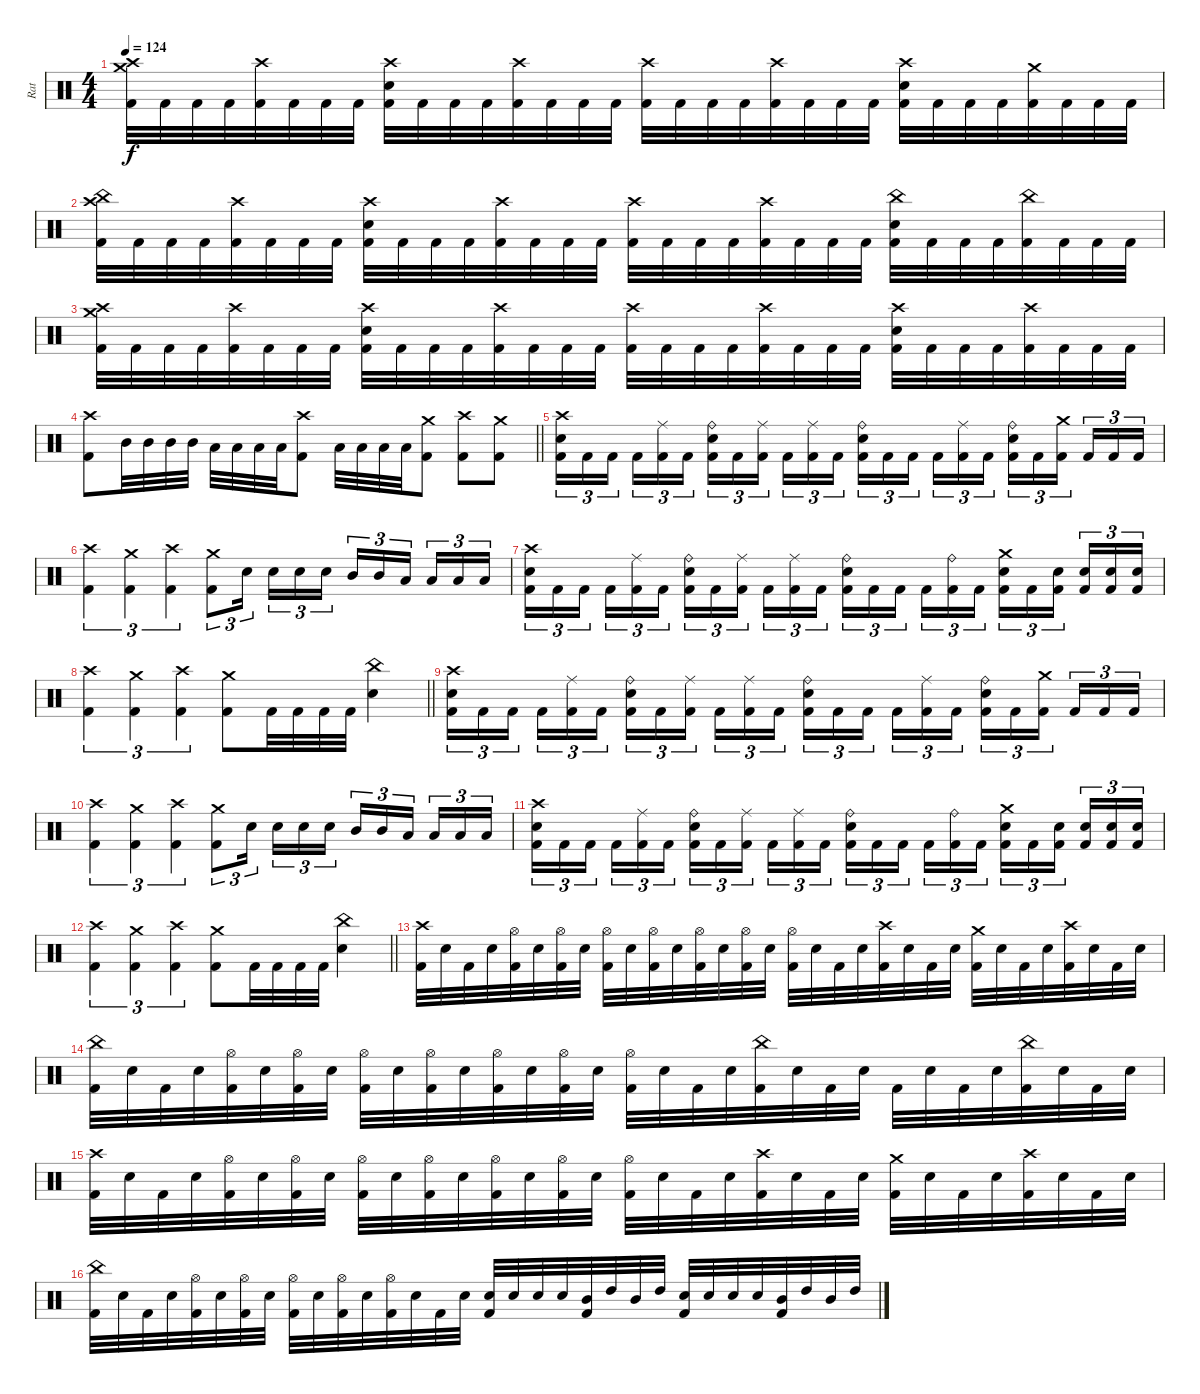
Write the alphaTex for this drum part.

\track ("Rat" "Rat") {instrument percussion}
\staff {score}
\articulation defaults
\ts (4 4)
\tempo 124
\clef neutral
\ks c
("Crash high (hit)" "Crash medium (hit)" "Kick (hit) 2").32{dy f} "Kick (hit) 2".32 "Kick (hit) 2".32 "Kick (hit) 2".32 ("Crash high (hit)" "Kick (hit) 2").32 "Kick (hit) 2".32 "Kick (hit) 2".32 "Kick (hit) 2".32 ("Crash high (hit)" "Electric Snare (hit)" "Kick (hit) 2").32 "Kick (hit) 2".32 "Kick (hit) 2".32 "Kick (hit) 2".32 ("Crash high (hit)" "Kick (hit) 2").32 "Kick (hit) 2".32 "Kick (hit) 2".32 "Kick (hit) 2".32 ("Crash high (hit)" "Kick (hit) 2").32 "Kick (hit) 2".32 "Kick (hit) 2".32 "Kick (hit) 2".32 ("Crash high (hit)" "Kick (hit) 2").32 "Kick (hit) 2".32 "Kick (hit) 2".32 "Kick (hit) 2".32 ("Crash high (hit)" "Electric Snare (hit)" "Kick (hit) 2").32 "Kick (hit) 2".32 "Kick (hit) 2".32 "Kick (hit) 2".32 ("Crash medium (hit)" "Kick (hit) 2").32 "Kick (hit) 2".32 "Kick (hit) 2".32 "Kick (hit) 2".32 |
("Crash high (hit)" "China (hit)" "Kick (hit) 2").32 "Kick (hit) 2".32 "Kick (hit) 2".32 "Kick (hit) 2".32 ("Crash high (hit)" "Kick (hit) 2").32 "Kick (hit) 2".32 "Kick (hit) 2".32 "Kick (hit) 2".32 ("Crash high (hit)" "Electric Snare (hit)" "Kick (hit) 2").32 "Kick (hit) 2".32 "Kick (hit) 2".32 "Kick (hit) 2".32 ("Crash high (hit)" "Kick (hit) 2").32 "Kick (hit) 2".32 "Kick (hit) 2".32 "Kick (hit) 2".32 ("Crash high (hit)" "Kick (hit) 2").32 "Kick (hit) 2".32 "Kick (hit) 2".32 "Kick (hit) 2".32 ("Crash high (hit)" "Kick (hit) 2").32 "Kick (hit) 2".32 "Kick (hit) 2".32 "Kick (hit) 2".32 ("China (hit)" "Electric Snare (hit)" "Kick (hit) 2").32 "Kick (hit) 2".32 "Kick (hit) 2".32 "Kick (hit) 2".32 ("China (hit)" "Kick (hit) 2").32 "Kick (hit) 2".32 "Kick (hit) 2".32 "Kick (hit) 2".32 |
("Crash high (hit)" "Crash medium (hit)" "Kick (hit) 2").32 "Kick (hit) 2".32 "Kick (hit) 2".32 "Kick (hit) 2".32 ("Crash high (hit)" "Kick (hit) 2").32 "Kick (hit) 2".32 "Kick (hit) 2".32 "Kick (hit) 2".32 ("Crash high (hit)" "Electric Snare (hit)" "Kick (hit) 2").32 "Kick (hit) 2".32 "Kick (hit) 2".32 "Kick (hit) 2".32 ("Crash high (hit)" "Kick (hit) 2").32 "Kick (hit) 2".32 "Kick (hit) 2".32 "Kick (hit) 2".32 ("Crash high (hit)" "Kick (hit) 2").32 "Kick (hit) 2".32 "Kick (hit) 2".32 "Kick (hit) 2".32 ("Crash high (hit)" "Kick (hit) 2").32 "Kick (hit) 2".32 "Kick (hit) 2".32 "Kick (hit) 2".32 ("Crash high (hit)" "Electric Snare (hit)" "Kick (hit) 2").32 "Kick (hit) 2".32 "Kick (hit) 2".32 "Kick (hit) 2".32 ("Crash high (hit)" "Kick (hit) 2").32 "Kick (hit) 2".32 "Kick (hit) 2".32 "Kick (hit) 2".32 |
\barLineRight lightlight
("Crash high (hit)" "Kick (hit) 2").8 "Mid Tom (hit)".32 "Mid Tom (hit)".32 "Mid Tom (hit)".32 "Mid Tom (hit)".32 "Low Tom (hit)".32 "Low Tom (hit)".32 "Low Tom (hit)".32 "Low Tom (hit)".32 ("Crash high (hit)" "Kick (hit) 2").8 "Low Tom (hit)".32 "Low Tom (hit)".32 "Low Tom (hit)".32 "Low Tom (hit)".32 ("Crash medium (hit)" "Kick (hit) 2").8 ("Crash high (hit)" "Kick (hit) 2").8 ("Crash medium (hit)" "Kick (hit) 2").8 |
("Crash high (hit)" "Electric Snare (hit)" "Kick (hit) 2").16{tu (3 2)} "Kick (hit) 2".16{tu (3 2)} "Kick (hit) 2".16{tu (3 2) beam splitsecondary} "Kick (hit) 2".16{tu (3 2)} ("Ride (middle)" "Kick (hit) 2").16{tu (3 2)} "Kick (hit) 2".16{tu (3 2)} ("Ride (bell)" "Electric Snare (hit)" "Kick (hit) 2").16{tu (3 2)} "Kick (hit) 2".16{tu (3 2)} ("Ride (middle)" "Kick (hit) 2").16{tu (3 2) beam splitsecondary} "Kick (hit) 2".16{tu (3 2)} ("Ride (middle)" "Kick (hit) 2").16{tu (3 2)} "Kick (hit) 2".16{tu (3 2)} ("Ride (bell)" "Electric Snare (hit)" "Kick (hit) 2").16{tu (3 2)} "Kick (hit) 2".16{tu (3 2)} "Kick (hit) 2".16{tu (3 2) beam splitsecondary} "Kick (hit) 2".16{tu (3 2)} ("Ride (middle)" "Kick (hit) 2").16{tu (3 2)} "Kick (hit) 2".16{tu (3 2)} ("Ride (bell)" "Electric Snare (hit)" "Kick (hit) 2").16{tu (3 2)} "Kick (hit) 2".16{tu (3 2)} ("Crash medium (hit)" "Kick (hit) 2").16{tu (3 2) beam splitsecondary} "Kick (hit) 2".16{tu (3 2)} "Kick (hit) 2".16{tu (3 2)} "Kick (hit) 2".16{tu (3 2)} |
("Crash high (hit)" "Kick (hit) 2").4{tu (3 2)} ("Crash medium (hit)" "Kick (hit) 2").4{tu (3 2)} ("Crash high (hit)" "Kick (hit) 2").4{tu (3 2)} ("Crash medium (hit)" "Kick (hit) 2").8{tu (3 2)} "Electric Snare (hit)".16{tu (3 2) beam splitsecondary} "Electric Snare (hit)".16{tu (3 2)} "Electric Snare (hit)".16{tu (3 2)} "Electric Snare (hit)".16{tu (3 2)} "Mid Tom (hit)".16{tu (3 2)} "Mid Tom (hit)".16{tu (3 2)} "Low Tom (hit)".16{tu (3 2) beam splitsecondary} "Low Tom (hit)".16{tu (3 2)} "Low Tom (hit)".16{tu (3 2)} "Low Tom (hit)".16{tu (3 2)} |
("Crash high (hit)" "Electric Snare (hit)" "Kick (hit) 2").16{tu (3 2)} "Kick (hit) 2".16{tu (3 2)} "Kick (hit) 2".16{tu (3 2) beam splitsecondary} "Kick (hit) 2".16{tu (3 2)} ("Ride (middle)" "Kick (hit) 2").16{tu (3 2)} "Kick (hit) 2".16{tu (3 2)} ("Ride (bell)" "Electric Snare (hit)" "Kick (hit) 2").16{tu (3 2)} "Kick (hit) 2".16{tu (3 2)} ("Ride (middle)" "Kick (hit) 2").16{tu (3 2) beam splitsecondary} "Kick (hit) 2".16{tu (3 2)} ("Ride (middle)" "Kick (hit) 2").16{tu (3 2)} "Kick (hit) 2".16{tu (3 2)} ("Ride (bell)" "Electric Snare (hit)" "Kick (hit) 2").16{tu (3 2)} "Kick (hit) 2".16{tu (3 2)} "Kick (hit) 2".16{tu (3 2) beam splitsecondary} "Kick (hit) 2".16{tu (3 2)} ("Ride (bell)" "Kick (hit) 2").16{tu (3 2)} "Kick (hit) 2".16{tu (3 2)} ("Crash medium (hit)" "Electric Snare (hit)" "Kick (hit) 2").16{tu (3 2)} "Kick (hit) 2".16{tu (3 2)} ("Electric Snare (hit)" "Kick (hit) 2").16{tu (3 2) beam splitsecondary} ("Electric Snare (hit)" "Kick (hit) 2").16{tu (3 2)} ("Electric Snare (hit)" "Kick (hit) 2").16{tu (3 2)} ("Electric Snare (hit)" "Kick (hit) 2").16{tu (3 2)} |
\barLineRight lightlight
("Crash high (hit)" "Kick (hit) 2").4{tu (3 2)} ("Crash medium (hit)" "Kick (hit) 2").4{tu (3 2)} ("Crash high (hit)" "Kick (hit) 2").4{tu (3 2)} ("Crash medium (hit)" "Kick (hit) 2").8 "Kick (hit) 2".32 "Kick (hit) 2".32 "Kick (hit) 2".32 "Kick (hit) 2".32 ("China (hit)" "Electric Snare (hit)").4 |
("Crash high (hit)" "Electric Snare (hit)" "Kick (hit) 2").16{tu (3 2)} "Kick (hit) 2".16{tu (3 2)} "Kick (hit) 2".16{tu (3 2) beam splitsecondary} "Kick (hit) 2".16{tu (3 2)} ("Ride (middle)" "Kick (hit) 2").16{tu (3 2)} "Kick (hit) 2".16{tu (3 2)} ("Ride (bell)" "Electric Snare (hit)" "Kick (hit) 2").16{tu (3 2)} "Kick (hit) 2".16{tu (3 2)} ("Ride (middle)" "Kick (hit) 2").16{tu (3 2) beam splitsecondary} "Kick (hit) 2".16{tu (3 2)} ("Ride (middle)" "Kick (hit) 2").16{tu (3 2)} "Kick (hit) 2".16{tu (3 2)} ("Ride (bell)" "Electric Snare (hit)" "Kick (hit) 2").16{tu (3 2)} "Kick (hit) 2".16{tu (3 2)} "Kick (hit) 2".16{tu (3 2) beam splitsecondary} "Kick (hit) 2".16{tu (3 2)} ("Ride (middle)" "Kick (hit) 2").16{tu (3 2)} "Kick (hit) 2".16{tu (3 2)} ("Ride (bell)" "Electric Snare (hit)" "Kick (hit) 2").16{tu (3 2)} "Kick (hit) 2".16{tu (3 2)} ("Crash medium (hit)" "Kick (hit) 2").16{tu (3 2) beam splitsecondary} "Kick (hit) 2".16{tu (3 2)} "Kick (hit) 2".16{tu (3 2)} "Kick (hit) 2".16{tu (3 2)} |
("Crash high (hit)" "Kick (hit) 2").4{tu (3 2)} ("Crash medium (hit)" "Kick (hit) 2").4{tu (3 2)} ("Crash high (hit)" "Kick (hit) 2").4{tu (3 2)} ("Crash medium (hit)" "Kick (hit) 2").8{tu (3 2)} "Electric Snare (hit)".16{tu (3 2) beam splitsecondary} "Electric Snare (hit)".16{tu (3 2)} "Electric Snare (hit)".16{tu (3 2)} "Electric Snare (hit)".16{tu (3 2)} "Mid Tom (hit)".16{tu (3 2)} "Mid Tom (hit)".16{tu (3 2)} "Low Tom (hit)".16{tu (3 2) beam splitsecondary} "Low Tom (hit)".16{tu (3 2)} "Low Tom (hit)".16{tu (3 2)} "Low Tom (hit)".16{tu (3 2)} |
("Crash high (hit)" "Electric Snare (hit)" "Kick (hit) 2").16{tu (3 2)} "Kick (hit) 2".16{tu (3 2)} "Kick (hit) 2".16{tu (3 2) beam splitsecondary} "Kick (hit) 2".16{tu (3 2)} ("Ride (middle)" "Kick (hit) 2").16{tu (3 2)} "Kick (hit) 2".16{tu (3 2)} ("Ride (bell)" "Electric Snare (hit)" "Kick (hit) 2").16{tu (3 2)} "Kick (hit) 2".16{tu (3 2)} ("Ride (middle)" "Kick (hit) 2").16{tu (3 2) beam splitsecondary} "Kick (hit) 2".16{tu (3 2)} ("Ride (middle)" "Kick (hit) 2").16{tu (3 2)} "Kick (hit) 2".16{tu (3 2)} ("Ride (bell)" "Electric Snare (hit)" "Kick (hit) 2").16{tu (3 2)} "Kick (hit) 2".16{tu (3 2)} "Kick (hit) 2".16{tu (3 2) beam splitsecondary} "Kick (hit) 2".16{tu (3 2)} ("Ride (bell)" "Kick (hit) 2").16{tu (3 2)} "Kick (hit) 2".16{tu (3 2)} ("Crash medium (hit)" "Electric Snare (hit)" "Kick (hit) 2").16{tu (3 2)} "Kick (hit) 2".16{tu (3 2)} ("Electric Snare (hit)" "Kick (hit) 2").16{tu (3 2) beam splitsecondary} ("Electric Snare (hit)" "Kick (hit) 2").16{tu (3 2)} ("Electric Snare (hit)" "Kick (hit) 2").16{tu (3 2)} ("Electric Snare (hit)" "Kick (hit) 2").16{tu (3 2)} |
\barLineRight lightlight
("Crash high (hit)" "Kick (hit) 2").4{tu (3 2)} ("Crash medium (hit)" "Kick (hit) 2").4{tu (3 2)} ("Crash high (hit)" "Kick (hit) 2").4{tu (3 2)} ("Crash medium (hit)" "Kick (hit) 2").8 "Kick (hit) 2".32 "Kick (hit) 2".32 "Kick (hit) 2".32 "Kick (hit) 2".32 ("China (hit)" "Electric Snare (hit)").4 |
("Crash high (hit)" "Kick (hit) 2").32 "Electric Snare (hit)".32 "Kick (hit) 2".32 "Electric Snare (hit)".32 ("Hi-Hat (open)" "Kick (hit) 2").32 "Electric Snare (hit)".32 ("Hi-Hat (open)" "Kick (hit) 2").32 "Electric Snare (hit)".32 ("Hi-Hat (open)" "Kick (hit) 2").32 "Electric Snare (hit)".32 ("Hi-Hat (open)" "Kick (hit) 2").32 "Electric Snare (hit)".32 ("Hi-Hat (open)" "Kick (hit) 2").32 "Electric Snare (hit)".32 ("Hi-Hat (open)" "Kick (hit) 2").32 "Electric Snare (hit)".32 ("Hi-Hat (open)" "Kick (hit) 2").32 "Electric Snare (hit)".32 "Kick (hit) 2".32 "Electric Snare (hit)".32 ("Crash high (hit)" "Kick (hit) 2").32 "Electric Snare (hit)".32 "Kick (hit) 2".32 "Electric Snare (hit)".32 ("Crash medium (hit)" "Kick (hit) 2").32 "Electric Snare (hit)".32 "Kick (hit) 2".32 "Electric Snare (hit)".32 ("Crash high (hit)" "Kick (hit) 2").32 "Electric Snare (hit)".32 "Kick (hit) 2".32 "Electric Snare (hit)".32 |
("China (hit)" "Kick (hit) 2").32 "Electric Snare (hit)".32 "Kick (hit) 2".32 "Electric Snare (hit)".32 ("Hi-Hat (open)" "Kick (hit) 2").32 "Electric Snare (hit)".32 ("Hi-Hat (open)" "Kick (hit) 2").32 "Electric Snare (hit)".32 ("Hi-Hat (open)" "Kick (hit) 2").32 "Electric Snare (hit)".32 ("Hi-Hat (open)" "Kick (hit) 2").32 "Electric Snare (hit)".32 ("Hi-Hat (open)" "Kick (hit) 2").32 "Electric Snare (hit)".32 ("Hi-Hat (open)" "Kick (hit) 2").32 "Electric Snare (hit)".32 ("Hi-Hat (open)" "Kick (hit) 2").32 "Electric Snare (hit)".32 "Kick (hit) 2".32 "Electric Snare (hit)".32 ("China (hit)" "Kick (hit) 2").32 "Electric Snare (hit)".32 "Kick (hit) 2".32 "Electric Snare (hit)".32 "Kick (hit) 2".32 "Electric Snare (hit)".32 "Kick (hit) 2".32 "Electric Snare (hit)".32 ("China (hit)" "Kick (hit) 2").32 "Electric Snare (hit)".32 "Kick (hit) 2".32 "Electric Snare (hit)".32 |
("Crash high (hit)" "Kick (hit) 2").32 "Electric Snare (hit)".32 "Kick (hit) 2".32 "Electric Snare (hit)".32 ("Hi-Hat (open)" "Kick (hit) 2").32 "Electric Snare (hit)".32 ("Hi-Hat (open)" "Kick (hit) 2").32 "Electric Snare (hit)".32 ("Hi-Hat (open)" "Kick (hit) 2").32 "Electric Snare (hit)".32 ("Hi-Hat (open)" "Kick (hit) 2").32 "Electric Snare (hit)".32 ("Hi-Hat (open)" "Kick (hit) 2").32 "Electric Snare (hit)".32 ("Hi-Hat (open)" "Kick (hit) 2").32 "Electric Snare (hit)".32 ("Hi-Hat (open)" "Kick (hit) 2").32 "Electric Snare (hit)".32 "Kick (hit) 2".32 "Electric Snare (hit)".32 ("Crash high (hit)" "Kick (hit) 2").32 "Electric Snare (hit)".32 "Kick (hit) 2".32 "Electric Snare (hit)".32 ("Crash medium (hit)" "Kick (hit) 2").32 "Electric Snare (hit)".32 "Kick (hit) 2".32 "Electric Snare (hit)".32 ("Crash high (hit)" "Kick (hit) 2").32 "Electric Snare (hit)".32 "Kick (hit) 2".32 "Electric Snare (hit)".32 |
("China (hit)" "Kick (hit) 2").32 "Electric Snare (hit)".32 "Kick (hit) 2".32 "Electric Snare (hit)".32 ("Hi-Hat (open)" "Kick (hit) 2").32 "Electric Snare (hit)".32 ("Hi-Hat (open)" "Kick (hit) 2").32 "Electric Snare (hit)".32 ("Hi-Hat (open)" "Kick (hit) 2").32 "Electric Snare (hit)".32 ("Hi-Hat (open)" "Kick (hit) 2").32 "Electric Snare (hit)".32 ("Hi-Hat (open)" "Kick (hit) 2").32 "Electric Snare (hit)".32 "Kick (hit) 2".32 "Electric Snare (hit)".32 ("Electric Snare (hit)" "Kick (hit) 2").32 "Electric Snare (hit)".32 "Electric Snare (hit)".32 "Electric Snare (hit)".32 ("Mid Tom (hit)" "Kick (hit) 2").32 "High Tom (hit)".32 "Mid Tom (hit)".32 "High Tom (hit)".32 ("Electric Snare (hit)" "Kick (hit) 2").32 "Electric Snare (hit)".32 "Electric Snare (hit)".32 "Electric Snare (hit)".32 ("Mid Tom (hit)" "Kick (hit) 2").32 "High Tom (hit)".32 "Mid Tom (hit)".32 "High Tom (hit)".32
